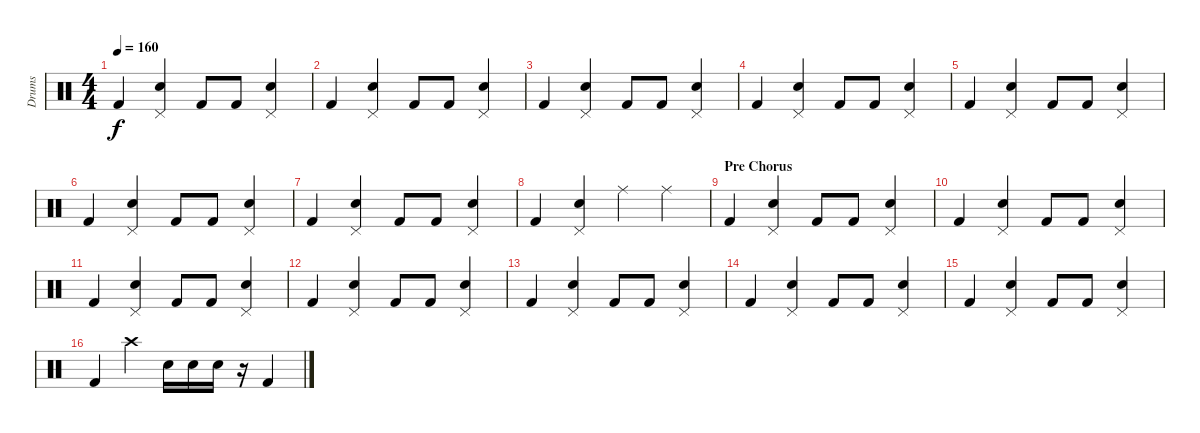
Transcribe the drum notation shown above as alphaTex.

\track ("Drums" "Drums") {instrument percussion}
\staff {score}
\articulation defaults
\ts (4 4)
\tempo 160
\clef neutral
\ks c "Kick (hit) 2".4{dy f}
("Pedal Hi-Hat (hit)" "Electric Snare (hit)").4 "Kick (hit) 2".8 "Kick (hit) 2".8 ("Pedal Hi-Hat (hit)" "Electric Snare (hit)").4 |
"Kick (hit) 2".4 ("Pedal Hi-Hat (hit)" "Electric Snare (hit)").4 "Kick (hit) 2".8 "Kick (hit) 2".8 ("Pedal Hi-Hat (hit)" "Electric Snare (hit)").4 |
"Kick (hit) 2".4 ("Pedal Hi-Hat (hit)" "Electric Snare (hit)").4 "Kick (hit) 2".8 "Kick (hit) 2".8 ("Pedal Hi-Hat (hit)" "Electric Snare (hit)").4 |
"Kick (hit) 2".4 ("Pedal Hi-Hat (hit)" "Electric Snare (hit)").4 "Kick (hit) 2".8 "Kick (hit) 2".8 ("Pedal Hi-Hat (hit)" "Electric Snare (hit)").4 |
"Kick (hit) 2".4 ("Pedal Hi-Hat (hit)" "Electric Snare (hit)").4 "Kick (hit) 2".8 "Kick (hit) 2".8 ("Pedal Hi-Hat (hit)" "Electric Snare (hit)").4 |
"Kick (hit) 2".4 ("Pedal Hi-Hat (hit)" "Electric Snare (hit)").4 "Kick (hit) 2".8 "Kick (hit) 2".8 ("Pedal Hi-Hat (hit)" "Electric Snare (hit)").4 |
"Kick (hit) 2".4 ("Pedal Hi-Hat (hit)" "Electric Snare (hit)").4 "Kick (hit) 2".8 "Kick (hit) 2".8 ("Pedal Hi-Hat (hit)" "Electric Snare (hit)").4 |
"Kick (hit) 2".4 ("Pedal Hi-Hat (hit)" "Electric Snare (hit)").4 "Ride (middle)".4 "Ride (middle)".4 |
\section ("" "Pre Chorus")
"Kick (hit) 2".4 ("Pedal Hi-Hat (hit)" "Electric Snare (hit)").4 "Kick (hit) 2".8 "Kick (hit) 2".8 ("Pedal Hi-Hat (hit)" "Electric Snare (hit)").4 |
"Kick (hit) 2".4 ("Pedal Hi-Hat (hit)" "Electric Snare (hit)").4 "Kick (hit) 2".8 "Kick (hit) 2".8 ("Pedal Hi-Hat (hit)" "Electric Snare (hit)").4 |
"Kick (hit) 2".4 ("Pedal Hi-Hat (hit)" "Electric Snare (hit)").4 "Kick (hit) 2".8 "Kick (hit) 2".8 ("Pedal Hi-Hat (hit)" "Electric Snare (hit)").4 |
"Kick (hit) 2".4 ("Pedal Hi-Hat (hit)" "Electric Snare (hit)").4 "Kick (hit) 2".8 "Kick (hit) 2".8 ("Pedal Hi-Hat (hit)" "Electric Snare (hit)").4 |
"Kick (hit) 2".4 ("Pedal Hi-Hat (hit)" "Electric Snare (hit)").4 "Kick (hit) 2".8 "Kick (hit) 2".8 ("Pedal Hi-Hat (hit)" "Electric Snare (hit)").4 |
"Kick (hit) 2".4 ("Pedal Hi-Hat (hit)" "Electric Snare (hit)").4 "Kick (hit) 2".8 "Kick (hit) 2".8 ("Pedal Hi-Hat (hit)" "Electric Snare (hit)").4 |
"Kick (hit) 2".4 ("Pedal Hi-Hat (hit)" "Electric Snare (hit)").4 "Kick (hit) 2".8 "Kick (hit) 2".8 ("Pedal Hi-Hat (hit)" "Electric Snare (hit)").4 |
"Kick (hit) 2".4 "Crash high (hit)".4 "Snare (hit) 2".16 "Snare (hit) 2".16 "Snare (hit) 2".16 r.16 "Kick (hit) 2".4
